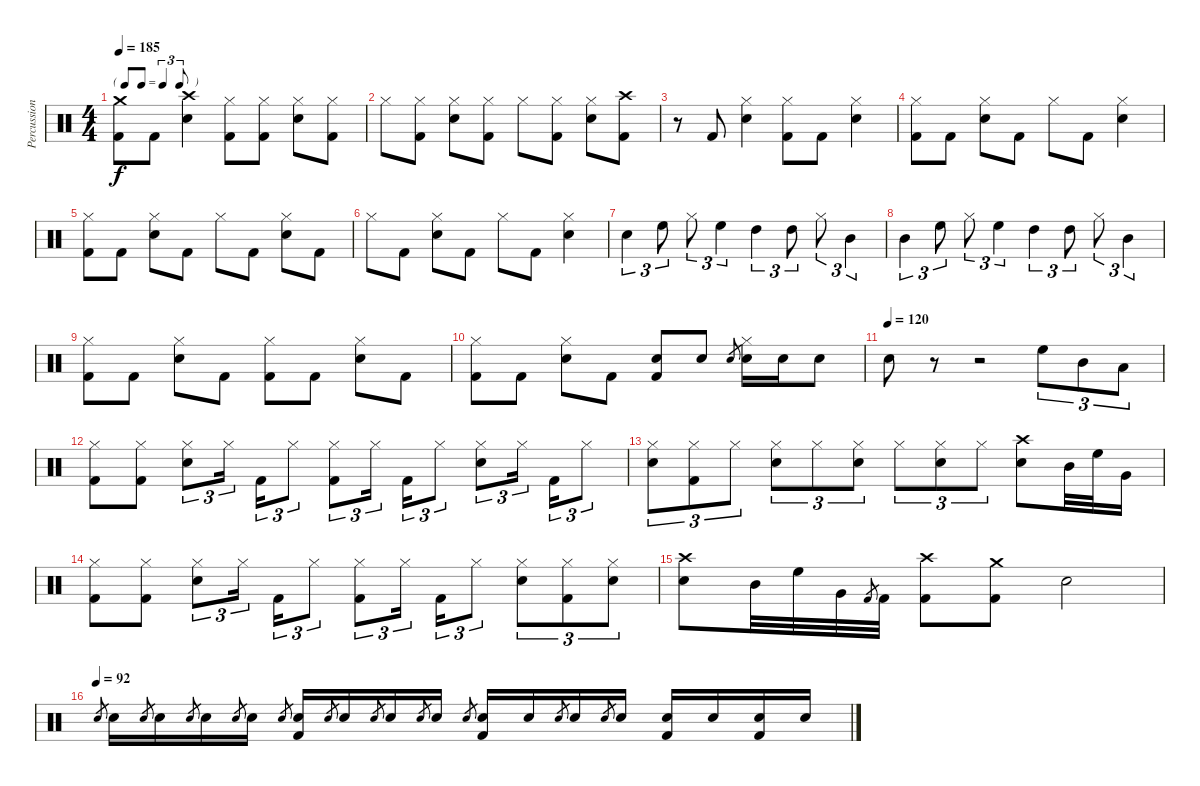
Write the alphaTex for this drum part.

\track ("Percussion" "Percussion") {instrument percussion}
\staff {score}
\articulation defaults
\ts (4 4)
\tf triplet8th
\tempo 185
\clef neutral
\ks c
("Kick (hit) 2" "Crash medium (hit)").8{dy f} "Kick (hit) 2".8 ("Snare (hit) 2" "Crash high (hit)").4 ("Kick (hit) 2" "Hi-Hat (closed)").8 ("Kick (hit) 2" "Hi-Hat (closed)").8 ("Snare (hit) 2" "Hi-Hat (closed)").8 ("Kick (hit) 2" "Hi-Hat (closed)").8 |
"Hi-Hat (closed)".8 ("Kick (hit) 2" "Hi-Hat (closed)").8 ("Snare (hit) 2" "Hi-Hat (closed)").8 ("Kick (hit) 2" "Hi-Hat (closed)").8 "Hi-Hat (closed)".8 ("Kick (hit) 2" "Hi-Hat (closed)").8 ("Snare (hit) 2" "Hi-Hat (closed)").8 ("Kick (hit) 2" "Crash high (hit)").8 |
r.8 "Kick (hit) 2".8 ("Snare (hit) 2" "Hi-Hat (closed)").4 ("Kick (hit) 2" "Hi-Hat (closed)").8 "Kick (hit) 2".8 ("Snare (hit) 2" "Hi-Hat (closed)").4 |
("Kick (hit) 2" "Hi-Hat (closed)").8 "Kick (hit) 2".8 ("Snare (hit) 2" "Hi-Hat (closed)").8 "Kick (hit) 2".8 "Hi-Hat (closed)".8 "Kick (hit) 2".8 ("Snare (hit) 2" "Hi-Hat (closed)").4 |
("Kick (hit) 2" "Hi-Hat (closed)").8 "Kick (hit) 2".8 ("Snare (hit) 2" "Hi-Hat (closed)").8 "Kick (hit) 2".8 "Hi-Hat (closed)".8 "Kick (hit) 2".8 ("Snare (hit) 2" "Hi-Hat (closed)").8 "Kick (hit) 2".8 |
"Hi-Hat (closed)".8 "Kick (hit) 2".8 ("Snare (hit) 2" "Hi-Hat (closed)").8 "Kick (hit) 2".8 "Hi-Hat (closed)".8 "Kick (hit) 2".8 ("Snare (hit) 2" "Hi-Hat (closed)").4 |
"Snare (hit) 2".4{tu (3 2)} "High Floor Tom (hit)".8{tu (3 2)} "Hi-Hat (closed)".8{tu (3 2)} "High Floor Tom (hit)".4{tu (3 2)} "High Tom (hit)".4{tu (3 2)} "High Tom (hit)".8{tu (3 2)} "Hi-Hat (closed)".8{tu (3 2)} "Mid Tom (hit)".4{tu (3 2)} |
"Mid Tom (hit)".4{tu (3 2)} "High Floor Tom (hit)".8{tu (3 2)} "Hi-Hat (closed)".8{tu (3 2)} "High Floor Tom (hit)".4{tu (3 2)} "High Tom (hit)".4{tu (3 2)} "High Tom (hit)".8{tu (3 2)} "Hi-Hat (closed)".8{tu (3 2)} "Mid Tom (hit)".4{tu (3 2)} |
("Kick (hit) 2" "Hi-Hat (closed)").8 "Kick (hit) 2".8 ("Snare (hit) 2" "Hi-Hat (closed)").8 "Kick (hit) 2".8 ("Kick (hit) 2" "Hi-Hat (closed)").8 "Kick (hit) 2".8 ("Snare (hit) 2" "Hi-Hat (closed)").8 "Kick (hit) 2".8 |
("Kick (hit) 2" "Hi-Hat (closed)").8 "Kick (hit) 2".8 ("Snare (hit) 2" "Hi-Hat (closed)").8 "Kick (hit) 2".8 ("Kick (hit) 2" "Snare (hit) 2").8 "Snare (hit) 2".8 "Snare (hit) 2".8{gr} ("Snare (hit) 2" "Hi-Hat (closed)").16 "Snare (hit) 2".16 "Snare (hit) 2".8 |
\tempo (120)
"Snare (hit) 2".8 r.8 r.2 "High Floor Tom (hit)".8{tu (3 2)} "Mid Tom (hit)".8{tu (3 2)} "Low Tom (hit)".8{tu (3 2)} |
("Kick (hit) 2" "Hi-Hat (closed)").8 ("Kick (hit) 2" "Hi-Hat (closed)").8 ("Snare (hit) 2" "Hi-Hat (closed)").8{tu (3 2)} "Hi-Hat (closed)".16{tu (3 2)} "Kick (hit) 2".16{tu (3 2)} "Hi-Hat (closed)".8{tu (3 2)} ("Kick (hit) 2" "Hi-Hat (closed)").8{tu (3 2)} "Hi-Hat (closed)".16{tu (3 2)} "Kick (hit) 2".16{tu (3 2)} "Hi-Hat (closed)".8{tu (3 2)} ("Snare (hit) 2" "Hi-Hat (closed)").8{tu (3 2)} "Hi-Hat (closed)".16{tu (3 2)} "Kick (hit) 2".16{tu (3 2)} "Hi-Hat (closed)".8{tu (3 2)} |
("Snare (hit) 2" "Hi-Hat (closed)").8{tu (3 2)} ("Kick (hit) 2" "Hi-Hat (closed)").8{tu (3 2)} "Hi-Hat (closed)".8{tu (3 2)} ("Snare (hit) 2" "Hi-Hat (closed)").8{tu (3 2)} "Hi-Hat (closed)".8{tu (3 2)} ("Snare (hit) 2" "Hi-Hat (closed)").8{tu (3 2)} "Hi-Hat (closed)".8{tu (3 2)} ("Snare (hit) 2" "Hi-Hat (closed)").8{tu (3 2)} "Hi-Hat (closed)".8{tu (3 2)} ("Snare (hit) 2" "Crash high (hit)").8 "Mid Tom (hit)".32 "High Floor Tom (hit)".32 "Very Low Tom (hit)".16 |
("Kick (hit) 2" "Hi-Hat (closed)").8 ("Kick (hit) 2" "Hi-Hat (closed)").8 ("Snare (hit) 2" "Hi-Hat (closed)").8{tu (3 2)} "Hi-Hat (closed)".16{tu (3 2)} "Kick (hit) 2".16{tu (3 2)} "Hi-Hat (closed)".8{tu (3 2)} ("Kick (hit) 2" "Hi-Hat (closed)").8{tu (3 2)} "Hi-Hat (closed)".16{tu (3 2)} "Kick (hit) 2".16{tu (3 2)} "Hi-Hat (closed)".8{tu (3 2)} ("Snare (hit) 2" "Hi-Hat (closed)").8{tu (3 2)} ("Kick (hit) 2" "Hi-Hat (closed)").8{tu (3 2)} ("Snare (hit) 2" "Hi-Hat (closed)").8{tu (3 2)} |
("Snare (hit) 2" "Crash high (hit)").8 "Mid Tom (hit)".32 "High Floor Tom (hit)".32 "Very Low Tom (hit)".32 "Kick (hit) 2".8{gr} "Kick (hit) 2".32 ("Kick (hit) 2" "Crash high (hit)").8 ("Kick (hit) 2" "Crash medium (hit)").8 "Snare (hit) 2".2 |
\tempo (92)
"Snare (hit) 2".8{gr} "Snare (hit) 2".16 "Snare (hit) 2".8{gr} "Snare (hit) 2".16 "Snare (hit) 2".8{gr} "Snare (hit) 2".16 "Snare (hit) 2".8{gr} "Snare (hit) 2".16 "Snare (hit) 2".8{gr} ("Snare (hit) 2" "Kick (hit) 2").16 "Snare (hit) 2".8{gr} "Snare (hit) 2".16 "Snare (hit) 2".8{gr} "Snare (hit) 2".16 "Snare (hit) 2".8{gr} "Snare (hit) 2".16 "Snare (hit) 2".8{gr} ("Snare (hit) 2" "Kick (hit) 2").16 "Snare (hit) 2".16 "Snare (hit) 2".8{gr} "Snare (hit) 2".16 "Snare (hit) 2".8{gr} "Snare (hit) 2".16 ("Snare (hit) 2" "Kick (hit) 2").16 "Snare (hit) 2".16 ("Snare (hit) 2" "Kick (hit) 2").16 "Snare (hit) 2".16
